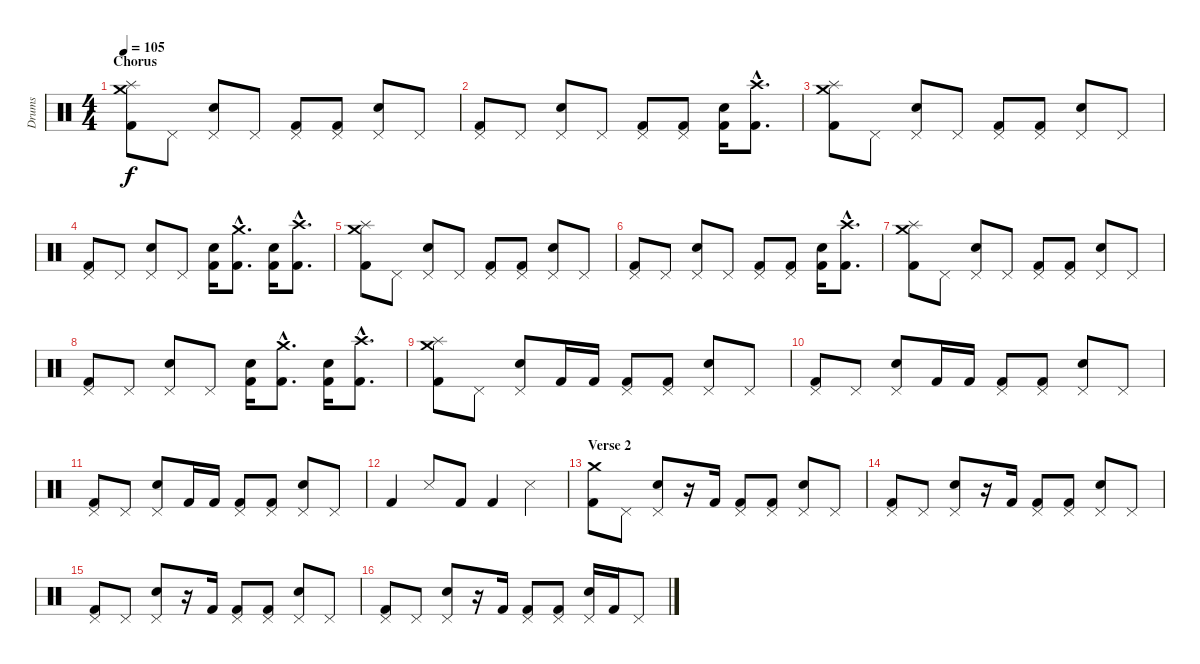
\track ("Drums" "Drums") {instrument percussion}
\staff {score}
\articulation defaults
\ts (4 4)
\section ("" "Chorus")
\tempo 105
\clef neutral
\ks c
("Crash medium (hit)" "Splash (hit)" "Kick (hit) 2").8{dy f} "Pedal Hi-Hat (hit)".8 ("Pedal Hi-Hat (hit)" "Electric Snare (hit)").8 "Pedal Hi-Hat (hit)".8 ("Pedal Hi-Hat (hit)" "Kick (hit) 2").8 ("Pedal Hi-Hat (hit)" "Kick (hit) 2").8 ("Pedal Hi-Hat (hit)" "Electric Snare (hit)").8 "Pedal Hi-Hat (hit)".8 |
("Pedal Hi-Hat (hit)" "Kick (hit) 2").8 "Pedal Hi-Hat (hit)".8 ("Pedal Hi-Hat (hit)" "Electric Snare (hit)").8 "Pedal Hi-Hat (hit)".8 ("Pedal Hi-Hat (hit)" "Kick (hit) 2").8 ("Pedal Hi-Hat (hit)" "Kick (hit) 2").8 ("Electric Snare (hit)" "Kick (hit) 2").16 ("Crash high (hit)"{hac} "Kick (hit) 2"{hac}).8{d} |
("Crash medium (hit)" "Splash (hit)" "Kick (hit) 2").8 "Pedal Hi-Hat (hit)".8 ("Pedal Hi-Hat (hit)" "Electric Snare (hit)").8 "Pedal Hi-Hat (hit)".8 ("Pedal Hi-Hat (hit)" "Kick (hit) 2").8 ("Pedal Hi-Hat (hit)" "Kick (hit) 2").8 ("Pedal Hi-Hat (hit)" "Electric Snare (hit)").8 "Pedal Hi-Hat (hit)".8 |
("Pedal Hi-Hat (hit)" "Kick (hit) 2").8 "Pedal Hi-Hat (hit)".8 ("Pedal Hi-Hat (hit)" "Electric Snare (hit)").8 "Pedal Hi-Hat (hit)".8 ("Electric Snare (hit)" "Kick (hit) 2").16 ("Crash medium (hit)"{hac} "Kick (hit) 2"{hac}).8{d} ("Electric Snare (hit)" "Kick (hit) 2").16 ("Crash high (hit)"{hac} "Kick (hit) 2"{hac}).8{d} |
("Crash medium (hit)" "Splash (hit)" "Kick (hit) 2").8 "Pedal Hi-Hat (hit)".8 ("Pedal Hi-Hat (hit)" "Electric Snare (hit)").8 "Pedal Hi-Hat (hit)".8 ("Pedal Hi-Hat (hit)" "Kick (hit) 2").8 ("Pedal Hi-Hat (hit)" "Kick (hit) 2").8 ("Pedal Hi-Hat (hit)" "Electric Snare (hit)").8 "Pedal Hi-Hat (hit)".8 |
("Pedal Hi-Hat (hit)" "Kick (hit) 2").8 "Pedal Hi-Hat (hit)".8 ("Pedal Hi-Hat (hit)" "Electric Snare (hit)").8 "Pedal Hi-Hat (hit)".8 ("Pedal Hi-Hat (hit)" "Kick (hit) 2").8 ("Pedal Hi-Hat (hit)" "Kick (hit) 2").8 ("Electric Snare (hit)" "Kick (hit) 2").16 ("Crash high (hit)"{hac} "Kick (hit) 2"{hac}).8{d} |
("Crash medium (hit)" "Splash (hit)" "Kick (hit) 2").8 "Pedal Hi-Hat (hit)".8 ("Pedal Hi-Hat (hit)" "Electric Snare (hit)").8 "Pedal Hi-Hat (hit)".8 ("Pedal Hi-Hat (hit)" "Kick (hit) 2").8 ("Pedal Hi-Hat (hit)" "Kick (hit) 2").8 ("Pedal Hi-Hat (hit)" "Electric Snare (hit)").8 "Pedal Hi-Hat (hit)".8 |
("Pedal Hi-Hat (hit)" "Kick (hit) 2").8 "Pedal Hi-Hat (hit)".8 ("Pedal Hi-Hat (hit)" "Electric Snare (hit)").8 "Pedal Hi-Hat (hit)".8 ("Electric Snare (hit)" "Kick (hit) 2").16 ("Crash medium (hit)"{hac} "Kick (hit) 2"{hac}).8{d} ("Electric Snare (hit)" "Kick (hit) 2").16 ("Crash high (hit)"{hac} "Kick (hit) 2"{hac}).8{d} |
("Crash medium (hit)" "Splash (hit)" "Kick (hit) 2").8 "Pedal Hi-Hat (hit)".8 ("Pedal Hi-Hat (hit)" "Electric Snare (hit)").8 "Kick (hit) 2".16 "Kick (hit) 2".16 ("Pedal Hi-Hat (hit)" "Kick (hit) 2").8 ("Pedal Hi-Hat (hit)" "Kick (hit) 2").8 ("Pedal Hi-Hat (hit)" "Electric Snare (hit)").8 "Pedal Hi-Hat (hit)".8 |
("Pedal Hi-Hat (hit)" "Kick (hit) 2").8 "Pedal Hi-Hat (hit)".8 ("Pedal Hi-Hat (hit)" "Electric Snare (hit)").8 "Kick (hit) 2".16 "Kick (hit) 2".16 ("Pedal Hi-Hat (hit)" "Kick (hit) 2").8 ("Pedal Hi-Hat (hit)" "Kick (hit) 2").8 ("Pedal Hi-Hat (hit)" "Electric Snare (hit)").8 "Pedal Hi-Hat (hit)".8 |
("Pedal Hi-Hat (hit)" "Kick (hit) 2").8 "Pedal Hi-Hat (hit)".8 ("Pedal Hi-Hat (hit)" "Electric Snare (hit)").8 "Kick (hit) 2".16 "Kick (hit) 2".16 ("Pedal Hi-Hat (hit)" "Kick (hit) 2").8 ("Pedal Hi-Hat (hit)" "Kick (hit) 2").8 ("Pedal Hi-Hat (hit)" "Electric Snare (hit)").8 "Pedal Hi-Hat (hit)".8 |
"Kick (hit) 2".4 "Snare (side stick) 3".8 "Kick (hit) 2".8 "Kick (hit) 2".4 "Snare (side stick) 3".4 |
\section ("" "Verse 2")
("Crash medium (hit)" "Kick (hit) 2").8 "Pedal Hi-Hat (hit)".8 ("Pedal Hi-Hat (hit)" "Electric Snare (hit)").8 r.16 "Kick (hit) 2".16 ("Pedal Hi-Hat (hit)" "Kick (hit) 2").8 ("Pedal Hi-Hat (hit)" "Kick (hit) 2").8 ("Pedal Hi-Hat (hit)" "Electric Snare (hit)").8 "Pedal Hi-Hat (hit)".8 |
("Pedal Hi-Hat (hit)" "Kick (hit) 2").8 "Pedal Hi-Hat (hit)".8 ("Pedal Hi-Hat (hit)" "Electric Snare (hit)").8 r.16 "Kick (hit) 2".16 ("Pedal Hi-Hat (hit)" "Kick (hit) 2").8 ("Pedal Hi-Hat (hit)" "Kick (hit) 2").8 ("Pedal Hi-Hat (hit)" "Electric Snare (hit)").8 "Pedal Hi-Hat (hit)".8 |
("Pedal Hi-Hat (hit)" "Kick (hit) 2").8 "Pedal Hi-Hat (hit)".8 ("Pedal Hi-Hat (hit)" "Electric Snare (hit)").8 r.16 "Kick (hit) 2".16 ("Pedal Hi-Hat (hit)" "Kick (hit) 2").8 ("Pedal Hi-Hat (hit)" "Kick (hit) 2").8 ("Pedal Hi-Hat (hit)" "Electric Snare (hit)").8 "Pedal Hi-Hat (hit)".8 |
("Pedal Hi-Hat (hit)" "Kick (hit) 2").8 "Pedal Hi-Hat (hit)".8 ("Pedal Hi-Hat (hit)" "Electric Snare (hit)").8 r.16 "Kick (hit) 2".16 ("Pedal Hi-Hat (hit)" "Kick (hit) 2").8 ("Pedal Hi-Hat (hit)" "Kick (hit) 2").8 ("Pedal Hi-Hat (hit)" "Electric Snare (hit)").16 "Kick (hit) 2".16 "Pedal Hi-Hat (hit)".8
